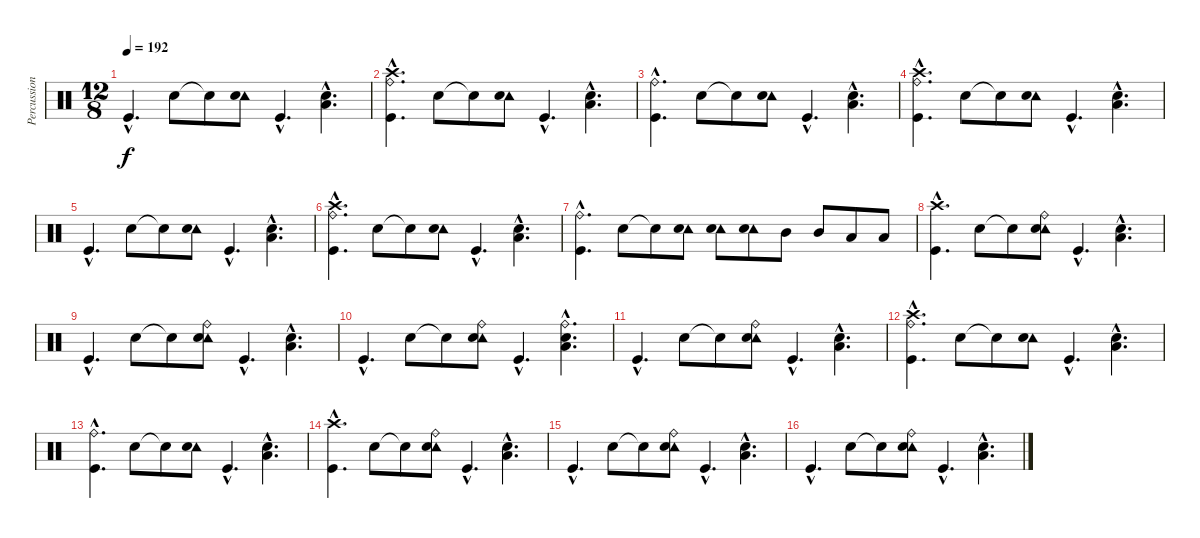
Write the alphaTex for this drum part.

\track ("Percussion" "Percussion") {instrument percussion}
\staff {score}
\articulation defaults
\ts (12 8)
\tempo 192
\clef neutral
\ks c "Kick (hit)"{hac}.4{d dy f} "Snare (hit) 2".8 "Snare (hit)"{t}.8
("Tambourine (hit)" "Snare (hit) 2").8 "Kick (hit)"{hac}.4{d} ("Snare (hit) 2"{hac} "Low Floor Tom (hit)"{hac}).4{d} |
("Crash high (hit)"{hac} "Ride (bell)"{hac} "Kick (hit)"{hac}).4{d} "Snare (hit) 2".8 "Snare (hit)"{t}.8 ("Tambourine (hit)" "Snare (hit) 2").8 "Kick (hit)"{hac}.4{d} ("Snare (hit) 2"{hac} "Low Floor Tom (hit)"{hac}).4{d} |
("Ride (bell)"{hac} "Kick (hit)"{hac}).4{d} "Snare (hit) 2".8 "Snare (hit)"{t}.8 ("Tambourine (hit)" "Snare (hit) 2").8 "Kick (hit)"{hac}.4{d} ("Snare (hit) 2"{hac} "Low Floor Tom (hit)"{hac}).4{d} |
("Crash high (hit)"{hac} "Ride (bell)"{hac} "Kick (hit)"{hac}).4{d} "Snare (hit) 2".8 "Snare (hit)"{t}.8 ("Tambourine (hit)" "Snare (hit) 2").8 "Kick (hit)"{hac}.4{d} ("Snare (hit) 2"{hac} "Low Floor Tom (hit)"{hac}).4{d} |
"Kick (hit)"{hac}.4{d} "Snare (hit) 2".8 "Snare (hit)"{t}.8 ("Tambourine (hit)" "Snare (hit) 2").8 "Kick (hit)"{hac}.4{d} ("Snare (hit) 2"{hac} "Low Floor Tom (hit)"{hac}).4{d} |
("Crash high (hit)"{hac} "Ride (bell)"{hac} "Kick (hit)"{hac}).4{d} "Snare (hit) 2".8 "Snare (hit)"{t}.8 ("Tambourine (hit)" "Snare (hit) 2").8 "Kick (hit)"{hac}.4{d} ("Snare (hit) 2"{hac} "Low Floor Tom (hit)"{hac}).4{d} |
("Ride (bell)"{hac} "Kick (hit)"{hac}).4{d} "Snare (hit) 2".8 "Snare (hit)"{t}.8 ("Tambourine (hit)" "Snare (hit) 2").8 ("Tambourine (hit)" "Snare (hit) 2").8 ("Tambourine (hit)" "Snare (hit) 2").8 "Mid Tom (hit)".8 "Mid Tom (hit)".8 "Low Floor Tom (hit)".8 "Low Floor Tom (hit)".8 |
("Crash high (hit)"{hac} "Kick (hit)"{hac}).4{d} "Snare (hit) 2".8 "Snare (hit)"{t}.8 ("Tambourine (hit)" "Ride (bell)" "Snare (hit) 2").8 "Kick (hit)"{hac}.4{d} ("Snare (hit) 2"{hac} "Low Floor Tom (hit)"{hac}).4{d} |
"Kick (hit)"{hac}.4{d} "Snare (hit) 2".8 "Snare (hit)"{t}.8 ("Tambourine (hit)" "Ride (bell)" "Snare (hit) 2").8 "Kick (hit)"{hac}.4{d} ("Snare (hit) 2"{hac} "Low Floor Tom (hit)"{hac}).4{d} |
"Kick (hit)"{hac}.4{d} "Snare (hit) 2".8 "Snare (hit)"{t}.8 ("Tambourine (hit)" "Ride (bell)" "Snare (hit) 2").8 "Kick (hit)"{hac}.4{d} ("Ride (bell)"{hac} "Snare (hit) 2"{hac} "Low Floor Tom (hit)"{hac}).4{d} |
"Kick (hit)"{hac}.4{d} "Snare (hit) 2".8 "Snare (hit)"{t}.8 ("Tambourine (hit)" "Ride (bell)" "Snare (hit) 2").8 "Kick (hit)"{hac}.4{d} ("Snare (hit) 2"{hac} "Low Floor Tom (hit)"{hac}).4{d} |
("Crash high (hit)"{hac} "Ride (bell)"{hac} "Kick (hit)"{hac}).4{d} "Snare (hit) 2".8 "Snare (hit)"{t}.8 ("Tambourine (hit)" "Snare (hit) 2").8 "Kick (hit)"{hac}.4{d} ("Snare (hit) 2"{hac} "Low Floor Tom (hit)"{hac}).4{d} |
("Ride (bell)"{hac} "Kick (hit)"{hac}).4{d} "Snare (hit) 2".8 "Snare (hit)"{t}.8 ("Tambourine (hit)" "Snare (hit) 2").8 "Kick (hit)"{hac}.4{d} ("Snare (hit) 2"{hac} "Low Floor Tom (hit)"{hac}).4{d} |
("Crash high (hit)"{hac} "Kick (hit)"{hac}).4{d} "Snare (hit) 2".8 "Snare (hit)"{t}.8 ("Tambourine (hit)" "Ride (bell)" "Snare (hit) 2").8 "Kick (hit)"{hac}.4{d} ("Snare (hit) 2"{hac} "Low Floor Tom (hit)"{hac}).4{d} |
"Kick (hit)"{hac}.4{d} "Snare (hit) 2".8 "Snare (hit)"{t}.8 ("Tambourine (hit)" "Ride (bell)" "Snare (hit) 2").8 "Kick (hit)"{hac}.4{d} ("Snare (hit) 2"{hac} "Low Floor Tom (hit)"{hac}).4{d} |
"Kick (hit)"{hac}.4{d} "Snare (hit) 2".8 "Snare (hit)"{t}.8 ("Tambourine (hit)" "Ride (bell)" "Snare (hit) 2").8 "Kick (hit)"{hac}.4{d} ("Snare (hit) 2"{hac} "Low Floor Tom (hit)"{hac}).4{d}
